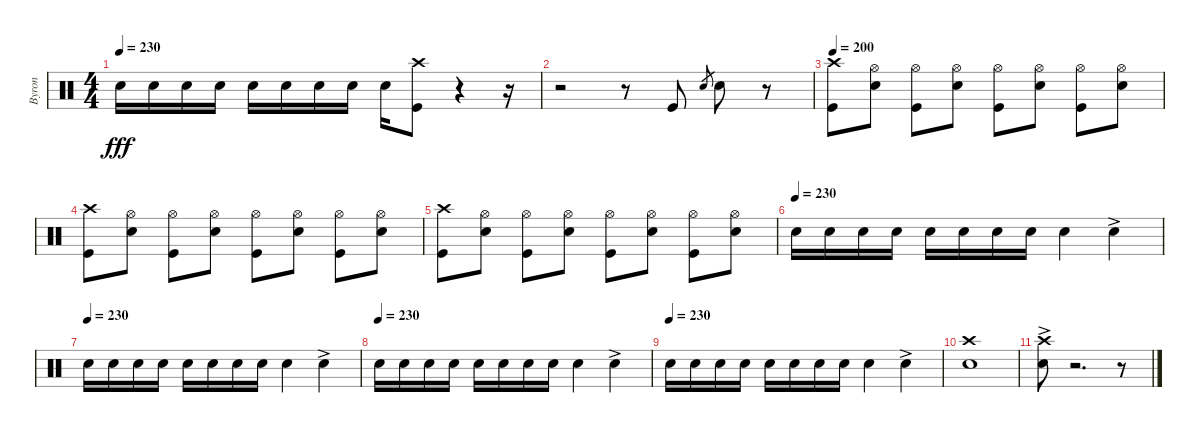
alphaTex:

\track ("Byron" "Byron") {instrument percussion}
\staff {score}
\articulation defaults
\ts (4 4)
\tempo 230
\clef neutral
\ks c "Electric Snare (hit)".16{dy fff} "Electric Snare (hit)".16 "Electric Snare (hit)".16 "Electric Snare (hit)".16 "Electric Snare (hit)".16 "Electric Snare (hit)".16 "Electric Snare (hit)".16 "Electric Snare (hit)".16 "Electric Snare (hit)".16
("Crash high (hit)" "Kick (hit)").8 r.4 r.16 |
r.2 r.8 "Kick (hit)".8 "Electric Snare (hit)".8{gr} "Electric Snare (hit)".8 r.8 |
\tempo 200
("Crash high (hit)" "Kick (hit)").8 ("Electric Snare (hit)" "Hi-Hat (open)").8 ("Kick (hit)" "Hi-Hat (open)").8 ("Electric Snare (hit)" "Hi-Hat (open)").8 ("Kick (hit)" "Hi-Hat (open)").8 ("Electric Snare (hit)" "Hi-Hat (open)").8 ("Kick (hit)" "Hi-Hat (open)").8 ("Electric Snare (hit)" "Hi-Hat (open)").8 |
("Crash high (hit)" "Kick (hit)").8 ("Electric Snare (hit)" "Hi-Hat (open)").8 ("Kick (hit)" "Hi-Hat (open)").8 ("Electric Snare (hit)" "Hi-Hat (open)").8 ("Kick (hit)" "Hi-Hat (open)").8 ("Electric Snare (hit)" "Hi-Hat (open)").8 ("Kick (hit)" "Hi-Hat (open)").8 ("Electric Snare (hit)" "Hi-Hat (open)").8 |
("Crash high (hit)" "Kick (hit)").8 ("Electric Snare (hit)" "Hi-Hat (open)").8 ("Kick (hit)" "Hi-Hat (open)").8 ("Electric Snare (hit)" "Hi-Hat (open)").8 ("Kick (hit)" "Hi-Hat (open)").8 ("Electric Snare (hit)" "Hi-Hat (open)").8 ("Kick (hit)" "Hi-Hat (open)").8 ("Electric Snare (hit)" "Hi-Hat (open)").8 |
\tempo (230)
"Electric Snare (hit)".16 "Electric Snare (hit)".16 "Electric Snare (hit)".16 "Electric Snare (hit)".16 "Electric Snare (hit)".16 "Electric Snare (hit)".16 "Electric Snare (hit)".16 "Electric Snare (hit)".16 "Electric Snare (hit)".4 "Electric Snare (hit)"{ac}.4 |
\tempo (230)
"Electric Snare (hit)".16 "Electric Snare (hit)".16 "Electric Snare (hit)".16 "Electric Snare (hit)".16 "Electric Snare (hit)".16 "Electric Snare (hit)".16 "Electric Snare (hit)".16 "Electric Snare (hit)".16 "Electric Snare (hit)".4 "Electric Snare (hit)"{ac}.4 |
\tempo (230)
"Electric Snare (hit)".16 "Electric Snare (hit)".16 "Electric Snare (hit)".16 "Electric Snare (hit)".16 "Electric Snare (hit)".16 "Electric Snare (hit)".16 "Electric Snare (hit)".16 "Electric Snare (hit)".16 "Electric Snare (hit)".4 "Electric Snare (hit)"{ac}.4 |
\tempo (230)
"Electric Snare (hit)".16 "Electric Snare (hit)".16 "Electric Snare (hit)".16 "Electric Snare (hit)".16 "Electric Snare (hit)".16 "Electric Snare (hit)".16 "Electric Snare (hit)".16 "Electric Snare (hit)".16 "Electric Snare (hit)".4 "Electric Snare (hit)"{ac}.4 |
("Electric Snare (hit)" "Crash high (hit)").1 |
("Crash high (hit)"{ac} "Electric Snare (hit)"{ac}).8 r.2{d} r.8
